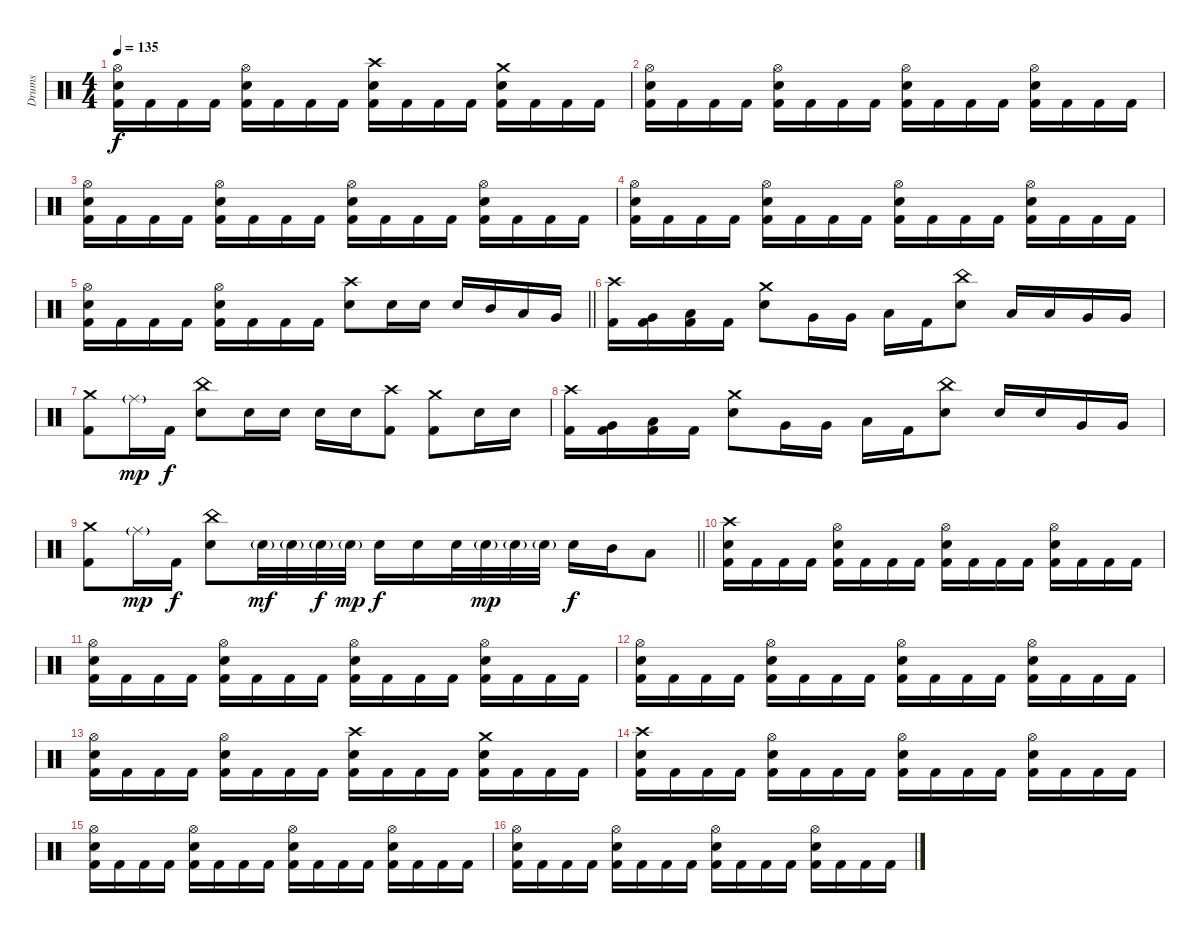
\track ("Drums" "Drums") {instrument percussion}
\staff {score}
\articulation defaults
\ts (4 4)
\tempo 135
\clef neutral
\ks c
("Hi-Hat (open)" "Electric Snare (hit)" "Kick (hit) 2").16{dy f} "Kick (hit) 2".16 "Kick (hit) 2".16 "Kick (hit) 2".16 ("Hi-Hat (open)" "Electric Snare (hit)" "Kick (hit) 2").16 "Kick (hit) 2".16 "Kick (hit) 2".16 "Kick (hit) 2".16 ("Crash high (hit)" "Electric Snare (hit)" "Kick (hit) 2").16 "Kick (hit) 2".16 "Kick (hit) 2".16 "Kick (hit) 2".16 ("Crash medium (hit)" "Electric Snare (hit)" "Kick (hit) 2").16 "Kick (hit) 2".16 "Kick (hit) 2".16 "Kick (hit) 2".16 |
("Hi-Hat (open)" "Electric Snare (hit)" "Kick (hit) 2").16 "Kick (hit) 2".16 "Kick (hit) 2".16 "Kick (hit) 2".16 ("Hi-Hat (open)" "Electric Snare (hit)" "Kick (hit) 2").16 "Kick (hit) 2".16 "Kick (hit) 2".16 "Kick (hit) 2".16 ("Hi-Hat (open)" "Electric Snare (hit)" "Kick (hit) 2").16 "Kick (hit) 2".16 "Kick (hit) 2".16 "Kick (hit) 2".16 ("Hi-Hat (open)" "Electric Snare (hit)" "Kick (hit) 2").16 "Kick (hit) 2".16 "Kick (hit) 2".16 "Kick (hit) 2".16 |
("Hi-Hat (open)" "Electric Snare (hit)" "Kick (hit) 2").16 "Kick (hit) 2".16 "Kick (hit) 2".16 "Kick (hit) 2".16 ("Hi-Hat (open)" "Electric Snare (hit)" "Kick (hit) 2").16 "Kick (hit) 2".16 "Kick (hit) 2".16 "Kick (hit) 2".16 ("Hi-Hat (open)" "Electric Snare (hit)" "Kick (hit) 2").16 "Kick (hit) 2".16 "Kick (hit) 2".16 "Kick (hit) 2".16 ("Hi-Hat (open)" "Electric Snare (hit)" "Kick (hit) 2").16 "Kick (hit) 2".16 "Kick (hit) 2".16 "Kick (hit) 2".16 |
("Hi-Hat (open)" "Electric Snare (hit)" "Kick (hit) 2").16 "Kick (hit) 2".16 "Kick (hit) 2".16 "Kick (hit) 2".16 ("Hi-Hat (open)" "Electric Snare (hit)" "Kick (hit) 2").16 "Kick (hit) 2".16 "Kick (hit) 2".16 "Kick (hit) 2".16 ("Hi-Hat (open)" "Electric Snare (hit)" "Kick (hit) 2").16 "Kick (hit) 2".16 "Kick (hit) 2".16 "Kick (hit) 2".16 ("Hi-Hat (open)" "Electric Snare (hit)" "Kick (hit) 2").16 "Kick (hit) 2".16 "Kick (hit) 2".16 "Kick (hit) 2".16 |
\barLineRight lightlight
("Hi-Hat (open)" "Electric Snare (hit)" "Kick (hit) 2").16 "Kick (hit) 2".16 "Kick (hit) 2".16 "Kick (hit) 2".16 ("Hi-Hat (open)" "Electric Snare (hit)" "Kick (hit) 2").16 "Kick (hit) 2".16 "Kick (hit) 2".16 "Kick (hit) 2".16 ("Crash high (hit)" "Electric Snare (hit)").8 "Electric Snare (hit)".16 "Electric Snare (hit)".16 "Electric Snare (hit)".16 "Mid Tom (hit)".16 "Low Tom (hit)".16 "Very Low Tom (hit)".16 |
("Crash high (hit)" "Kick (hit) 2").16 ("Very Low Tom (hit)" "Kick (hit) 2").16 ("Low Floor Tom (hit)" "Kick (hit) 2").16 "Kick (hit) 2".16 ("Crash medium (hit)" "Electric Snare (hit)").8 "Very Low Tom (hit)".16 "Very Low Tom (hit)".16 "Low Floor Tom (hit)".16 "Kick (hit) 2".16 ("China (hit)" "Electric Snare (hit)").8 "Low Tom (hit)".16 "Low Tom (hit)".16 "Very Low Tom (hit)".16 "Very Low Tom (hit)".16 |
("Crash medium (hit)" "Kick (hit) 2").8 "Ride (middle)"{g}.16{dy mp} "Kick (hit) 2".16{dy f} ("China (hit)" "Electric Snare (hit)").8 "Electric Snare (hit)".16 "Electric Snare (hit)".16 "Electric Snare (hit)".16 "Electric Snare (hit)".16 ("Crash high (hit)" "Kick (hit) 2").8 ("Crash medium (hit)" "Kick (hit) 2").8 "Electric Snare (hit)".16 "Electric Snare (hit)".16 |
("Crash high (hit)" "Kick (hit) 2").16 ("Very Low Tom (hit)" "Kick (hit) 2").16 ("Low Floor Tom (hit)" "Kick (hit) 2").16 "Kick (hit) 2".16 ("Crash medium (hit)" "Electric Snare (hit)").8 "Very Low Tom (hit)".16 "Very Low Tom (hit)".16 "Low Floor Tom (hit)".16 "Kick (hit) 2".16 ("China (hit)" "Electric Snare (hit)").8 "Electric Snare (hit)".16 "Electric Snare (hit)".16 "Very Low Tom (hit)".16 "Very Low Tom (hit)".16 |
\barLineRight lightlight
("Crash medium (hit)" "Kick (hit) 2").8 "Ride (middle)"{g}.16{dy mp} "Kick (hit) 2".16{dy f} ("China (hit)" "Electric Snare (hit)").8 "Electric Snare (hit)"{g}.32{dy mf} "Electric Snare (hit)"{g}.32 "Electric Snare (hit)"{g}.32{dy f} "Electric Snare (hit)"{g}.32{dy mp} "Electric Snare (hit)".16{dy f} "Electric Snare (hit)".16 "Electric Snare (hit)".32 "Electric Snare (hit)"{g}.32{dy mp} "Electric Snare (hit)"{g}.32 "Electric Snare (hit)"{g}.32 "Electric Snare (hit)".16{dy f} "Mid Tom (hit)".16 "Low Tom (hit)".8 |
("Crash high (hit)" "Electric Snare (hit)" "Kick (hit) 2").16 "Kick (hit) 2".16 "Kick (hit) 2".16 "Kick (hit) 2".16 ("Hi-Hat (open)" "Electric Snare (hit)" "Kick (hit) 2").16 "Kick (hit) 2".16 "Kick (hit) 2".16 "Kick (hit) 2".16 ("Hi-Hat (open)" "Electric Snare (hit)" "Kick (hit) 2").16 "Kick (hit) 2".16 "Kick (hit) 2".16 "Kick (hit) 2".16 ("Hi-Hat (open)" "Electric Snare (hit)" "Kick (hit) 2").16 "Kick (hit) 2".16 "Kick (hit) 2".16 "Kick (hit) 2".16 |
("Hi-Hat (open)" "Electric Snare (hit)" "Kick (hit) 2").16 "Kick (hit) 2".16 "Kick (hit) 2".16 "Kick (hit) 2".16 ("Hi-Hat (open)" "Electric Snare (hit)" "Kick (hit) 2").16 "Kick (hit) 2".16 "Kick (hit) 2".16 "Kick (hit) 2".16 ("Hi-Hat (open)" "Electric Snare (hit)" "Kick (hit) 2").16 "Kick (hit) 2".16 "Kick (hit) 2".16 "Kick (hit) 2".16 ("Hi-Hat (open)" "Electric Snare (hit)" "Kick (hit) 2").16 "Kick (hit) 2".16 "Kick (hit) 2".16 "Kick (hit) 2".16 |
("Hi-Hat (open)" "Electric Snare (hit)" "Kick (hit) 2").16 "Kick (hit) 2".16 "Kick (hit) 2".16 "Kick (hit) 2".16 ("Hi-Hat (open)" "Electric Snare (hit)" "Kick (hit) 2").16 "Kick (hit) 2".16 "Kick (hit) 2".16 "Kick (hit) 2".16 ("Hi-Hat (open)" "Electric Snare (hit)" "Kick (hit) 2").16 "Kick (hit) 2".16 "Kick (hit) 2".16 "Kick (hit) 2".16 ("Hi-Hat (open)" "Electric Snare (hit)" "Kick (hit) 2").16 "Kick (hit) 2".16 "Kick (hit) 2".16 "Kick (hit) 2".16 |
("Hi-Hat (open)" "Electric Snare (hit)" "Kick (hit) 2").16 "Kick (hit) 2".16 "Kick (hit) 2".16 "Kick (hit) 2".16 ("Hi-Hat (open)" "Electric Snare (hit)" "Kick (hit) 2").16 "Kick (hit) 2".16 "Kick (hit) 2".16 "Kick (hit) 2".16 ("Crash high (hit)" "Electric Snare (hit)" "Kick (hit) 2").16 "Kick (hit) 2".16 "Kick (hit) 2".16 "Kick (hit) 2".16 ("Crash medium (hit)" "Electric Snare (hit)" "Kick (hit) 2").16 "Kick (hit) 2".16 "Kick (hit) 2".16 "Kick (hit) 2".16 |
("Crash high (hit)" "Electric Snare (hit)" "Kick (hit) 2").16 "Kick (hit) 2".16 "Kick (hit) 2".16 "Kick (hit) 2".16 ("Hi-Hat (open)" "Electric Snare (hit)" "Kick (hit) 2").16 "Kick (hit) 2".16 "Kick (hit) 2".16 "Kick (hit) 2".16 ("Hi-Hat (open)" "Electric Snare (hit)" "Kick (hit) 2").16 "Kick (hit) 2".16 "Kick (hit) 2".16 "Kick (hit) 2".16 ("Hi-Hat (open)" "Electric Snare (hit)" "Kick (hit) 2").16 "Kick (hit) 2".16 "Kick (hit) 2".16 "Kick (hit) 2".16 |
("Hi-Hat (open)" "Electric Snare (hit)" "Kick (hit) 2").16 "Kick (hit) 2".16 "Kick (hit) 2".16 "Kick (hit) 2".16 ("Hi-Hat (open)" "Electric Snare (hit)" "Kick (hit) 2").16 "Kick (hit) 2".16 "Kick (hit) 2".16 "Kick (hit) 2".16 ("Hi-Hat (open)" "Electric Snare (hit)" "Kick (hit) 2").16 "Kick (hit) 2".16 "Kick (hit) 2".16 "Kick (hit) 2".16 ("Hi-Hat (open)" "Electric Snare (hit)" "Kick (hit) 2").16 "Kick (hit) 2".16 "Kick (hit) 2".16 "Kick (hit) 2".16 |
("Hi-Hat (open)" "Electric Snare (hit)" "Kick (hit) 2").16 "Kick (hit) 2".16 "Kick (hit) 2".16 "Kick (hit) 2".16 ("Hi-Hat (open)" "Electric Snare (hit)" "Kick (hit) 2").16 "Kick (hit) 2".16 "Kick (hit) 2".16 "Kick (hit) 2".16 ("Hi-Hat (open)" "Electric Snare (hit)" "Kick (hit) 2").16 "Kick (hit) 2".16 "Kick (hit) 2".16 "Kick (hit) 2".16 ("Hi-Hat (open)" "Electric Snare (hit)" "Kick (hit) 2").16 "Kick (hit) 2".16 "Kick (hit) 2".16 "Kick (hit) 2".16
